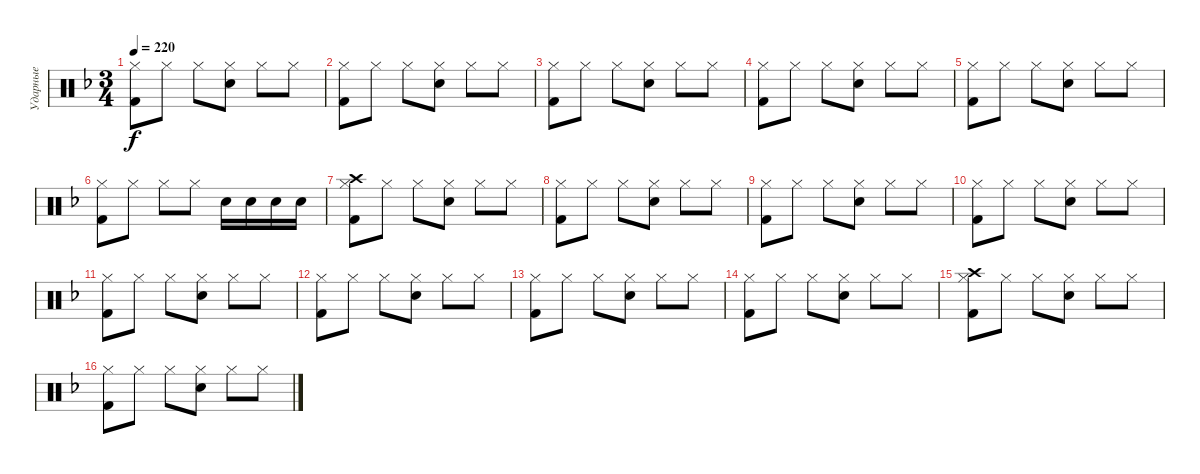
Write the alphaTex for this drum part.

\track ("Ударные" "Ударные") {instrument percussion}
\staff {score}
\articulation defaults
\ts (3 4)
\tempo 220
\clef neutral
\ks f
("Hi-Hat (closed)" "Kick (hit) 2").8{dy f} "Hi-Hat (closed)".8 "Hi-Hat (closed)".8 ("Hi-Hat (closed)" "Electric Snare (hit)").8 "Hi-Hat (closed)".8 "Hi-Hat (closed)".8 |
("Hi-Hat (closed)" "Kick (hit) 2").8 "Hi-Hat (closed)".8 "Hi-Hat (closed)".8 ("Hi-Hat (closed)" "Electric Snare (hit)").8 "Hi-Hat (closed)".8 "Hi-Hat (closed)".8 |
("Hi-Hat (closed)" "Kick (hit) 2").8 "Hi-Hat (closed)".8 "Hi-Hat (closed)".8 ("Hi-Hat (closed)" "Electric Snare (hit)").8 "Hi-Hat (closed)".8 "Hi-Hat (closed)".8 |
("Hi-Hat (closed)" "Kick (hit) 2").8 "Hi-Hat (closed)".8 "Hi-Hat (closed)".8 ("Hi-Hat (closed)" "Electric Snare (hit)").8 "Hi-Hat (closed)".8 "Hi-Hat (closed)".8 |
("Hi-Hat (closed)" "Kick (hit) 2").8 "Hi-Hat (closed)".8 "Hi-Hat (closed)".8 ("Hi-Hat (closed)" "Electric Snare (hit)").8 "Hi-Hat (closed)".8 "Hi-Hat (closed)".8 |
("Hi-Hat (closed)" "Kick (hit) 2").8 "Hi-Hat (closed)".8 "Hi-Hat (closed)".8 "Hi-Hat (closed)".8 "Snare (hit) 2".16 "Snare (hit) 2".16 "Snare (hit) 2".16 "Snare (hit) 2".16 |
("Crash high (hit)" "Hi-Hat (closed)" "Kick (hit) 2").8 "Hi-Hat (closed)".8 "Hi-Hat (closed)".8 ("Hi-Hat (closed)" "Electric Snare (hit)").8 "Hi-Hat (closed)".8 "Hi-Hat (closed)".8 |
("Hi-Hat (closed)" "Kick (hit) 2").8 "Hi-Hat (closed)".8 "Hi-Hat (closed)".8 ("Hi-Hat (closed)" "Electric Snare (hit)").8 "Hi-Hat (closed)".8 "Hi-Hat (closed)".8 |
("Hi-Hat (closed)" "Kick (hit) 2").8 "Hi-Hat (closed)".8 "Hi-Hat (closed)".8 ("Hi-Hat (closed)" "Electric Snare (hit)").8 "Hi-Hat (closed)".8 "Hi-Hat (closed)".8 |
("Hi-Hat (closed)" "Kick (hit) 2").8 "Hi-Hat (closed)".8 "Hi-Hat (closed)".8 ("Hi-Hat (closed)" "Electric Snare (hit)").8 "Hi-Hat (closed)".8 "Hi-Hat (closed)".8 |
("Hi-Hat (closed)" "Kick (hit) 2").8 "Hi-Hat (closed)".8 "Hi-Hat (closed)".8 ("Hi-Hat (closed)" "Electric Snare (hit)").8 "Hi-Hat (closed)".8 "Hi-Hat (closed)".8 |
("Hi-Hat (closed)" "Kick (hit) 2").8 "Hi-Hat (closed)".8 "Hi-Hat (closed)".8 ("Hi-Hat (closed)" "Electric Snare (hit)").8 "Hi-Hat (closed)".8 "Hi-Hat (closed)".8 |
("Hi-Hat (closed)" "Kick (hit) 2").8 "Hi-Hat (closed)".8 "Hi-Hat (closed)".8 ("Hi-Hat (closed)" "Electric Snare (hit)").8 "Hi-Hat (closed)".8 "Hi-Hat (closed)".8 |
("Hi-Hat (closed)" "Kick (hit) 2").8 "Hi-Hat (closed)".8 "Hi-Hat (closed)".8 ("Hi-Hat (closed)" "Electric Snare (hit)").8 "Hi-Hat (closed)".8 "Hi-Hat (closed)".8 |
("Crash high (hit)" "Hi-Hat (closed)" "Kick (hit) 2").8 "Hi-Hat (closed)".8 "Hi-Hat (closed)".8 ("Hi-Hat (closed)" "Electric Snare (hit)").8 "Hi-Hat (closed)".8 "Hi-Hat (closed)".8 |
("Hi-Hat (closed)" "Kick (hit) 2").8 "Hi-Hat (closed)".8 "Hi-Hat (closed)".8 ("Hi-Hat (closed)" "Electric Snare (hit)").8 "Hi-Hat (closed)".8 "Hi-Hat (closed)".8
